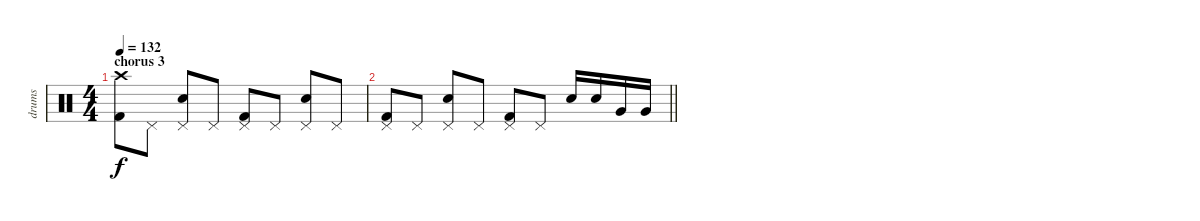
\track ("drums" "drums") {instrument percussion}
\staff {score}
\articulation defaults
\ts (4 4)
\section ("" "chorus 3")
\tempo 132
\clef neutral
\ks c
("Kick (hit) 2" "Crash high (hit)").8{dy f} "Pedal Hi-Hat (hit)".8 ("Electric Snare (hit)" "Pedal Hi-Hat (hit)").8 "Pedal Hi-Hat (hit)".8 ("Kick (hit) 2" "Pedal Hi-Hat (hit)").8 "Pedal Hi-Hat (hit)".8 ("Electric Snare (hit)" "Pedal Hi-Hat (hit)").8 "Pedal Hi-Hat (hit)".8 |
\barLineRight lightlight
("Kick (hit) 2" "Pedal Hi-Hat (hit)").8 "Pedal Hi-Hat (hit)".8 ("Electric Snare (hit)" "Pedal Hi-Hat (hit)").8 "Pedal Hi-Hat (hit)".8 ("Kick (hit) 2" "Pedal Hi-Hat (hit)").8 "Pedal Hi-Hat (hit)".8 "Electric Snare (hit)".16 "Electric Snare (hit)".16 "Very Low Tom (hit)".16 "Very Low Tom (hit)".16
